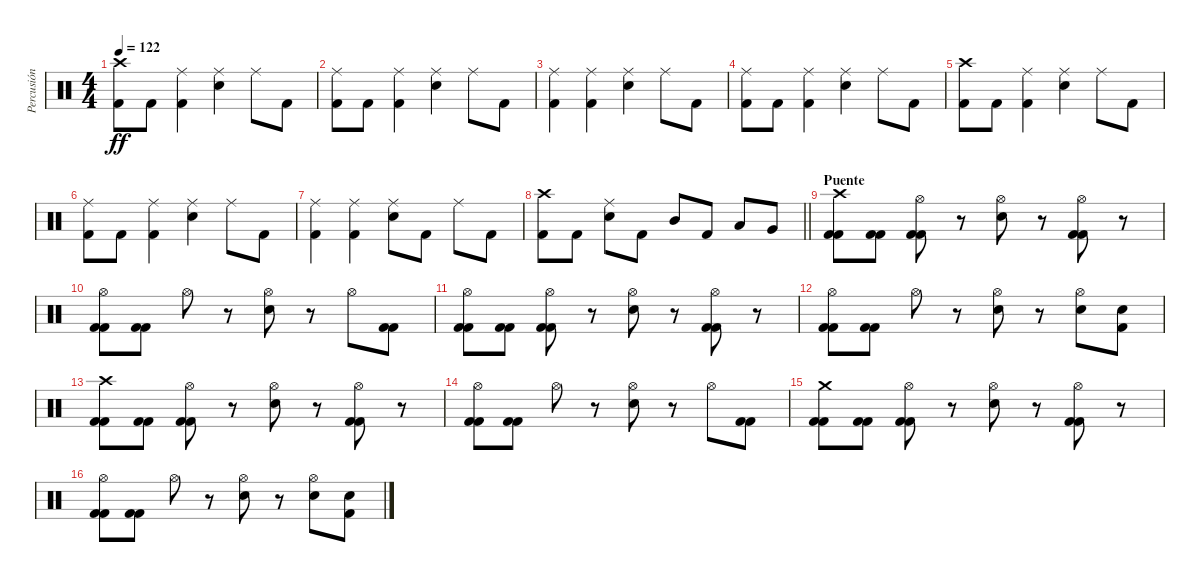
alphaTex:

\track ("Percusión" "Percusión") {instrument percussion}
\staff {score}
\articulation defaults
\ts (4 4)
\tempo 122
\clef neutral
\ks c
("Crash high (hit)" "Kick (hit) 2").8{dy ff} "Kick (hit) 2".8 ("Ride (middle)" "Kick (hit) 2").4 ("Ride (middle)" "Snare (hit) 2").4 "Ride (middle)".8 "Kick (hit) 2".8 |
("Ride (middle)" "Kick (hit) 2").8 "Kick (hit) 2".8 ("Ride (middle)" "Kick (hit) 2").4 ("Ride (middle)" "Snare (hit) 2").4 "Ride (middle)".8 "Kick (hit) 2".8 |
("Ride (middle)" "Kick (hit) 2").4 ("Ride (middle)" "Kick (hit) 2").4 ("Ride (middle)" "Snare (hit) 2").4 "Ride (middle)".8 "Kick (hit) 2".8 |
("Ride (middle)" "Kick (hit) 2").8 "Kick (hit) 2".8 ("Ride (middle)" "Kick (hit) 2").4 ("Ride (middle)" "Snare (hit) 2").4 "Ride (middle)".8 "Kick (hit) 2".8 |
("Crash high (hit)" "Kick (hit) 2").8 "Kick (hit) 2".8 ("Ride (middle)" "Kick (hit) 2").4 ("Ride (middle)" "Snare (hit) 2").4 "Ride (middle)".8 "Kick (hit) 2".8 |
("Ride (middle)" "Kick (hit) 2").8 "Kick (hit) 2".8 ("Ride (middle)" "Kick (hit) 2").4 ("Ride (middle)" "Snare (hit) 2").4 "Ride (middle)".8 "Kick (hit) 2".8 |
("Ride (middle)" "Kick (hit) 2").4 ("Ride (middle)" "Kick (hit) 2").4 ("Ride (middle)" "Snare (hit) 2").8 "Kick (hit) 2".8 "Ride (middle)".8 "Kick (hit) 2".8 |
\barLineRight lightlight
("Crash high (hit)" "Kick (hit) 2").8 "Kick (hit) 2".8 ("Ride (middle)" "Snare (hit) 2").8 "Kick (hit) 2".8 "Mid Tom (hit)".8 "Kick (hit) 2".8 "Low Tom (hit)".8 "Very Low Tom (hit)".8 |
\section ("" "Puente")
("Crash high (hit)" "Kick (hit) 2" "Kick (hit) 2").8 ("Kick (hit) 2" "Kick (hit) 2").8 ("Hi-Hat (open)" "Kick (hit) 2" "Kick (hit) 2").8 r.8 ("Hi-Hat (open)" "Snare (hit) 2").8 r.8 ("Hi-Hat (open)" "Kick (hit) 2" "Kick (hit) 2").8 r.8 |
("Hi-Hat (open)" "Kick (hit) 2" "Kick (hit) 2").8 ("Kick (hit) 2" "Kick (hit) 2").8 "Hi-Hat (open)".8 r.8 ("Hi-Hat (open)" "Snare (hit) 2").8 r.8 "Hi-Hat (open)".8 ("Kick (hit) 2" "Kick (hit) 2").8 |
("Hi-Hat (open)" "Kick (hit) 2" "Kick (hit) 2").8 ("Kick (hit) 2" "Kick (hit) 2").8 ("Hi-Hat (open)" "Kick (hit) 2" "Kick (hit) 2").8 r.8 ("Hi-Hat (open)" "Snare (hit) 2").8 r.8 ("Hi-Hat (open)" "Kick (hit) 2" "Kick (hit) 2").8 r.8 |
("Hi-Hat (open)" "Kick (hit) 2" "Kick (hit) 2").8 ("Kick (hit) 2" "Kick (hit) 2").8 "Hi-Hat (open)".8 r.8 ("Hi-Hat (open)" "Snare (hit) 2").8 r.8 ("Hi-Hat (open)" "Snare (hit) 2").8 ("Snare (hit) 2" "Kick (hit) 2").8 |
("Crash high (hit)" "Kick (hit) 2" "Kick (hit) 2").8 ("Kick (hit) 2" "Kick (hit) 2").8 ("Hi-Hat (open)" "Kick (hit) 2" "Kick (hit) 2").8 r.8 ("Hi-Hat (open)" "Snare (hit) 2").8 r.8 ("Hi-Hat (open)" "Kick (hit) 2" "Kick (hit) 2").8 r.8 |
("Hi-Hat (open)" "Kick (hit) 2" "Kick (hit) 2").8 ("Kick (hit) 2" "Kick (hit) 2").8 "Hi-Hat (open)".8 r.8 ("Hi-Hat (open)" "Snare (hit) 2").8 r.8 "Hi-Hat (open)".8 ("Kick (hit) 2" "Kick (hit) 2").8 |
("Crash medium (hit)" "Kick (hit) 2" "Kick (hit) 2").8 ("Kick (hit) 2" "Kick (hit) 2").8 ("Hi-Hat (open)" "Kick (hit) 2" "Kick (hit) 2").8 r.8 ("Hi-Hat (open)" "Snare (hit) 2").8 r.8 ("Hi-Hat (open)" "Kick (hit) 2" "Kick (hit) 2").8 r.8 |
("Hi-Hat (open)" "Kick (hit) 2" "Kick (hit) 2").8 ("Kick (hit) 2" "Kick (hit) 2").8 "Hi-Hat (open)".8 r.8 ("Hi-Hat (open)" "Snare (hit) 2").8 r.8 ("Hi-Hat (open)" "Snare (hit) 2").8 ("Snare (hit) 2" "Kick (hit) 2").8
